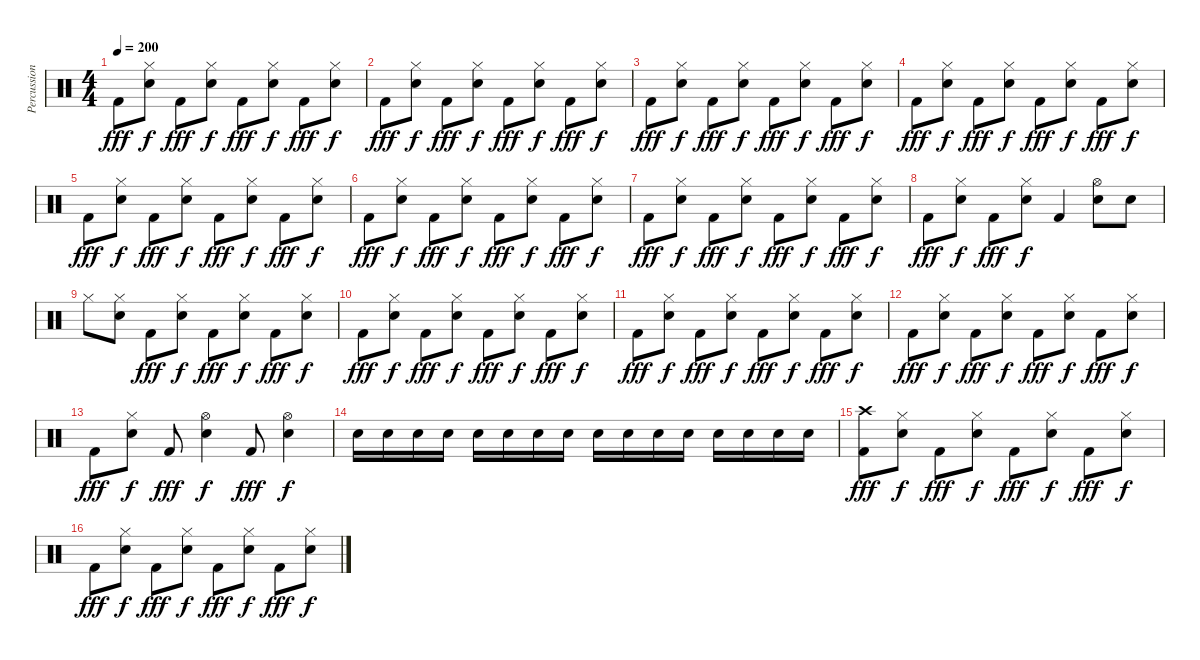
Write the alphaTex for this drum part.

\track ("Percussion" "Percussion") {instrument percussion}
\staff {score}
\articulation defaults
\ts (4 4)
\tempo 200
\clef neutral
\ks c "Kick (hit) 2".8{dy fff}
("Hi-Hat (closed)" "Electric Snare (hit)").8{dy f} "Kick (hit) 2".8{dy fff} ("Hi-Hat (closed)" "Electric Snare (hit)").8{dy f} "Kick (hit) 2".8{dy fff} ("Hi-Hat (closed)" "Electric Snare (hit)").8{dy f} "Kick (hit) 2".8{dy fff} ("Hi-Hat (closed)" "Electric Snare (hit)").8{dy f} |
"Kick (hit) 2".8{dy fff} ("Hi-Hat (closed)" "Electric Snare (hit)").8{dy f} "Kick (hit) 2".8{dy fff} ("Hi-Hat (closed)" "Electric Snare (hit)").8{dy f} "Kick (hit) 2".8{dy fff} ("Hi-Hat (closed)" "Electric Snare (hit)").8{dy f} "Kick (hit) 2".8{dy fff} ("Hi-Hat (closed)" "Electric Snare (hit)").8{dy f} |
"Kick (hit) 2".8{dy fff} ("Hi-Hat (closed)" "Electric Snare (hit)").8{dy f} "Kick (hit) 2".8{dy fff} ("Hi-Hat (closed)" "Electric Snare (hit)").8{dy f} "Kick (hit) 2".8{dy fff} ("Hi-Hat (closed)" "Electric Snare (hit)").8{dy f} "Kick (hit) 2".8{dy fff} ("Hi-Hat (closed)" "Electric Snare (hit)").8{dy f} |
"Kick (hit) 2".8{dy fff} ("Hi-Hat (closed)" "Electric Snare (hit)").8{dy f} "Kick (hit) 2".8{dy fff} ("Hi-Hat (closed)" "Electric Snare (hit)").8{dy f} "Kick (hit) 2".8{dy fff} ("Hi-Hat (closed)" "Electric Snare (hit)").8{dy f} "Kick (hit) 2".8{dy fff} ("Hi-Hat (closed)" "Electric Snare (hit)").8{dy f} |
"Kick (hit) 2".8{dy fff} ("Hi-Hat (closed)" "Electric Snare (hit)").8{dy f} "Kick (hit) 2".8{dy fff} ("Hi-Hat (closed)" "Electric Snare (hit)").8{dy f} "Kick (hit) 2".8{dy fff} ("Hi-Hat (closed)" "Electric Snare (hit)").8{dy f} "Kick (hit) 2".8{dy fff} ("Hi-Hat (closed)" "Electric Snare (hit)").8{dy f} |
"Kick (hit) 2".8{dy fff} ("Hi-Hat (closed)" "Electric Snare (hit)").8{dy f} "Kick (hit) 2".8{dy fff} ("Hi-Hat (closed)" "Electric Snare (hit)").8{dy f} "Kick (hit) 2".8{dy fff} ("Hi-Hat (closed)" "Electric Snare (hit)").8{dy f} "Kick (hit) 2".8{dy fff} ("Hi-Hat (closed)" "Electric Snare (hit)").8{dy f} |
"Kick (hit) 2".8{dy fff} ("Hi-Hat (closed)" "Electric Snare (hit)").8{dy f} "Kick (hit) 2".8{dy fff} ("Hi-Hat (closed)" "Electric Snare (hit)").8{dy f} "Kick (hit) 2".8{dy fff} ("Hi-Hat (closed)" "Electric Snare (hit)").8{dy f} "Kick (hit) 2".8{dy fff} ("Hi-Hat (closed)" "Electric Snare (hit)").8{dy f} |
"Kick (hit) 2".8{dy fff} ("Hi-Hat (closed)" "Electric Snare (hit)").8{dy f} "Kick (hit) 2".8{dy fff} ("Hi-Hat (closed)" "Electric Snare (hit)").8{dy f} "Kick (hit) 2".4 ("Hi-Hat (open)" "Electric Snare (hit)").8 "Electric Snare (hit)".8 |
"Hi-Hat (closed)".8 ("Hi-Hat (closed)" "Electric Snare (hit)").8 "Kick (hit) 2".8{dy fff} ("Hi-Hat (closed)" "Electric Snare (hit)").8{dy f} "Kick (hit) 2".8{dy fff} ("Hi-Hat (closed)" "Electric Snare (hit)").8{dy f} "Kick (hit) 2".8{dy fff} ("Hi-Hat (closed)" "Electric Snare (hit)").8{dy f} |
"Kick (hit) 2".8{dy fff} ("Hi-Hat (closed)" "Electric Snare (hit)").8{dy f} "Kick (hit) 2".8{dy fff} ("Hi-Hat (closed)" "Electric Snare (hit)").8{dy f} "Kick (hit) 2".8{dy fff} ("Hi-Hat (closed)" "Electric Snare (hit)").8{dy f} "Kick (hit) 2".8{dy fff} ("Hi-Hat (closed)" "Electric Snare (hit)").8{dy f} |
"Kick (hit) 2".8{dy fff} ("Hi-Hat (closed)" "Electric Snare (hit)").8{dy f} "Kick (hit) 2".8{dy fff} ("Hi-Hat (closed)" "Electric Snare (hit)").8{dy f} "Kick (hit) 2".8{dy fff} ("Hi-Hat (closed)" "Electric Snare (hit)").8{dy f} "Kick (hit) 2".8{dy fff} ("Hi-Hat (closed)" "Electric Snare (hit)").8{dy f} |
"Kick (hit) 2".8{dy fff} ("Hi-Hat (closed)" "Electric Snare (hit)").8{dy f} "Kick (hit) 2".8{dy fff} ("Hi-Hat (closed)" "Electric Snare (hit)").8{dy f} "Kick (hit) 2".8{dy fff} ("Hi-Hat (closed)" "Electric Snare (hit)").8{dy f} "Kick (hit) 2".8{dy fff} ("Hi-Hat (closed)" "Electric Snare (hit)").8{dy f} |
"Kick (hit) 2".8{dy fff} ("Hi-Hat (closed)" "Electric Snare (hit)").8{dy f} "Kick (hit) 2".8{dy fff} ("Hi-Hat (open)" "Electric Snare (hit)").4{dy f} "Kick (hit) 2".8{dy fff} ("Hi-Hat (open)" "Electric Snare (hit)").4{dy f} |
"Electric Snare (hit)".16 "Electric Snare (hit)".16 "Electric Snare (hit)".16 "Electric Snare (hit)".16 "Electric Snare (hit)".16 "Electric Snare (hit)".16 "Electric Snare (hit)".16 "Electric Snare (hit)".16 "Electric Snare (hit)".16 "Electric Snare (hit)".16 "Electric Snare (hit)".16 "Electric Snare (hit)".16 "Electric Snare (hit)".16 "Electric Snare (hit)".16 "Electric Snare (hit)".16 "Electric Snare (hit)".16 |
("Crash high (hit)" "Kick (hit) 2").8{dy fff} ("Hi-Hat (closed)" "Electric Snare (hit)").8{dy f} "Kick (hit) 2".8{dy fff} ("Hi-Hat (closed)" "Electric Snare (hit)").8{dy f} "Kick (hit) 2".8{dy fff} ("Hi-Hat (closed)" "Electric Snare (hit)").8{dy f} "Kick (hit) 2".8{dy fff} ("Hi-Hat (closed)" "Electric Snare (hit)").8{dy f} |
"Kick (hit) 2".8{dy fff} ("Hi-Hat (closed)" "Electric Snare (hit)").8{dy f} "Kick (hit) 2".8{dy fff} ("Hi-Hat (closed)" "Electric Snare (hit)").8{dy f} "Kick (hit) 2".8{dy fff} ("Hi-Hat (closed)" "Electric Snare (hit)").8{dy f} "Kick (hit) 2".8{dy fff} ("Hi-Hat (closed)" "Electric Snare (hit)").8{dy f}
